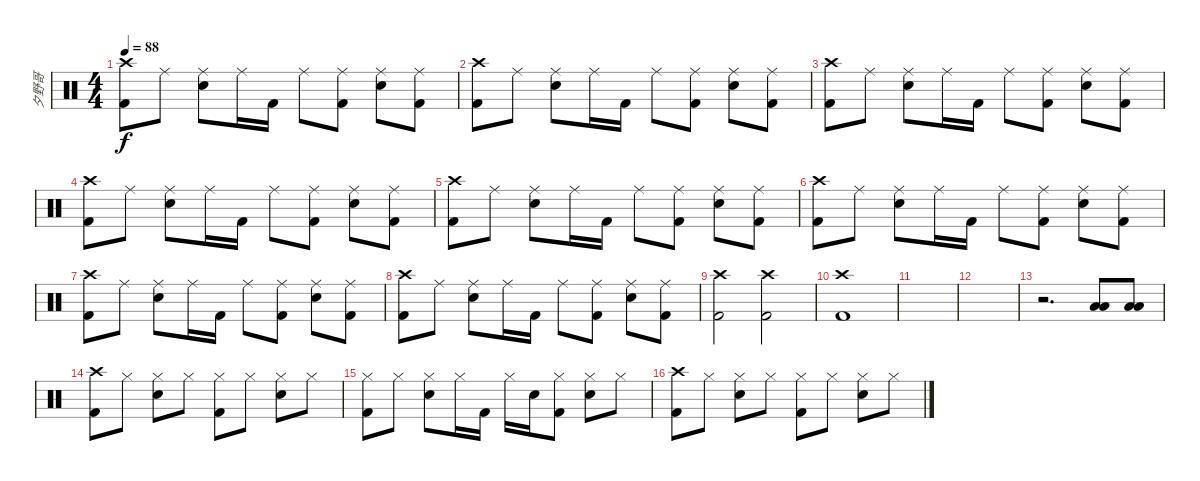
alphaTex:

\track ("夕野哥" "夕野哥") {instrument percussion}
\staff {score}
\articulation defaults
\ts (4 4)
\tempo 88
\clef neutral
\ks c
("Crash high (hit)" "Kick (hit) 2").8{dy f} "Ride (middle)".8 ("Ride (middle)" "Electric Snare (hit)").8 "Ride (middle)".16 "Kick (hit) 2".16 "Ride (middle)".8 ("Ride (middle)" "Kick (hit) 2").8 ("Ride (middle)" "Electric Snare (hit)").8 ("Ride (middle)" "Kick (hit) 2").8 |
("Crash high (hit)" "Kick (hit) 2").8 "Ride (middle)".8 ("Ride (middle)" "Electric Snare (hit)").8 "Ride (middle)".16 "Kick (hit) 2".16 "Ride (middle)".8 ("Ride (middle)" "Kick (hit) 2").8 ("Ride (middle)" "Electric Snare (hit)").8 ("Ride (middle)" "Kick (hit) 2").8 |
("Crash high (hit)" "Kick (hit) 2").8 "Ride (middle)".8 ("Ride (middle)" "Electric Snare (hit)").8 "Ride (middle)".16 "Kick (hit) 2".16 "Ride (middle)".8 ("Ride (middle)" "Kick (hit) 2").8 ("Ride (middle)" "Electric Snare (hit)").8 ("Ride (middle)" "Kick (hit) 2").8 |
("Crash high (hit)" "Kick (hit) 2").8 "Ride (middle)".8 ("Ride (middle)" "Electric Snare (hit)").8 "Ride (middle)".16 "Kick (hit) 2".16 "Ride (middle)".8 ("Ride (middle)" "Kick (hit) 2").8 ("Ride (middle)" "Electric Snare (hit)").8 ("Ride (middle)" "Kick (hit) 2").8 |
("Crash high (hit)" "Kick (hit) 2").8 "Ride (middle)".8 ("Ride (middle)" "Electric Snare (hit)").8 "Ride (middle)".16 "Kick (hit) 2".16 "Ride (middle)".8 ("Ride (middle)" "Kick (hit) 2").8 ("Ride (middle)" "Electric Snare (hit)").8 ("Ride (middle)" "Kick (hit) 2").8 |
("Crash high (hit)" "Kick (hit) 2").8 "Ride (middle)".8 ("Ride (middle)" "Electric Snare (hit)").8 "Ride (middle)".16 "Kick (hit) 2".16 "Ride (middle)".8 ("Ride (middle)" "Kick (hit) 2").8 ("Ride (middle)" "Electric Snare (hit)").8 ("Ride (middle)" "Kick (hit) 2").8 |
("Crash high (hit)" "Kick (hit) 2").8 "Ride (middle)".8 ("Ride (middle)" "Electric Snare (hit)").8 "Ride (middle)".16 "Kick (hit) 2".16 "Ride (middle)".8 ("Ride (middle)" "Kick (hit) 2").8 ("Ride (middle)" "Electric Snare (hit)").8 ("Ride (middle)" "Kick (hit) 2").8 |
("Crash high (hit)" "Kick (hit) 2").8 "Ride (middle)".8 ("Ride (middle)" "Electric Snare (hit)").8 "Ride (middle)".16 "Kick (hit) 2".16 "Ride (middle)".8 ("Ride (middle)" "Kick (hit) 2").8 ("Ride (middle)" "Electric Snare (hit)").8 ("Ride (middle)" "Kick (hit) 2").8 |
("Crash high (hit)" "Kick (hit) 2").2 ("Crash high (hit)" "Kick (hit) 2").2 |
("Crash high (hit)" "Kick (hit) 2").1 |
|
|
r.2{d} ("Low Tom (hit)" "Low Floor Tom (hit)").8 ("Low Tom (hit)" "Low Floor Tom (hit)").8 |
("Crash high (hit)" "Kick (hit) 2").8 "Hi-Hat (closed)".8 ("Hi-Hat (closed)" "Electric Snare (hit)").8 "Hi-Hat (closed)".8 ("Hi-Hat (closed)" "Kick (hit) 2").8 "Hi-Hat (closed)".8 ("Hi-Hat (closed)" "Electric Snare (hit)").8 "Hi-Hat (closed)".8 |
("Hi-Hat (closed)" "Kick (hit) 2").8 "Hi-Hat (closed)".8 ("Hi-Hat (closed)" "Electric Snare (hit)").8 "Hi-Hat (closed)".16 "Kick (hit) 2".16 "Hi-Hat (closed)".16 "Electric Snare (hit)".16 ("Hi-Hat (closed)" "Kick (hit) 2").8 ("Hi-Hat (closed)" "Electric Snare (hit)").8 "Hi-Hat (closed)".8 |
("Crash high (hit)" "Kick (hit) 2").8 "Hi-Hat (closed)".8 ("Hi-Hat (closed)" "Electric Snare (hit)").8 "Hi-Hat (closed)".8 ("Hi-Hat (closed)" "Kick (hit) 2").8 "Hi-Hat (closed)".8 ("Hi-Hat (closed)" "Electric Snare (hit)").8 "Hi-Hat (closed)".8
